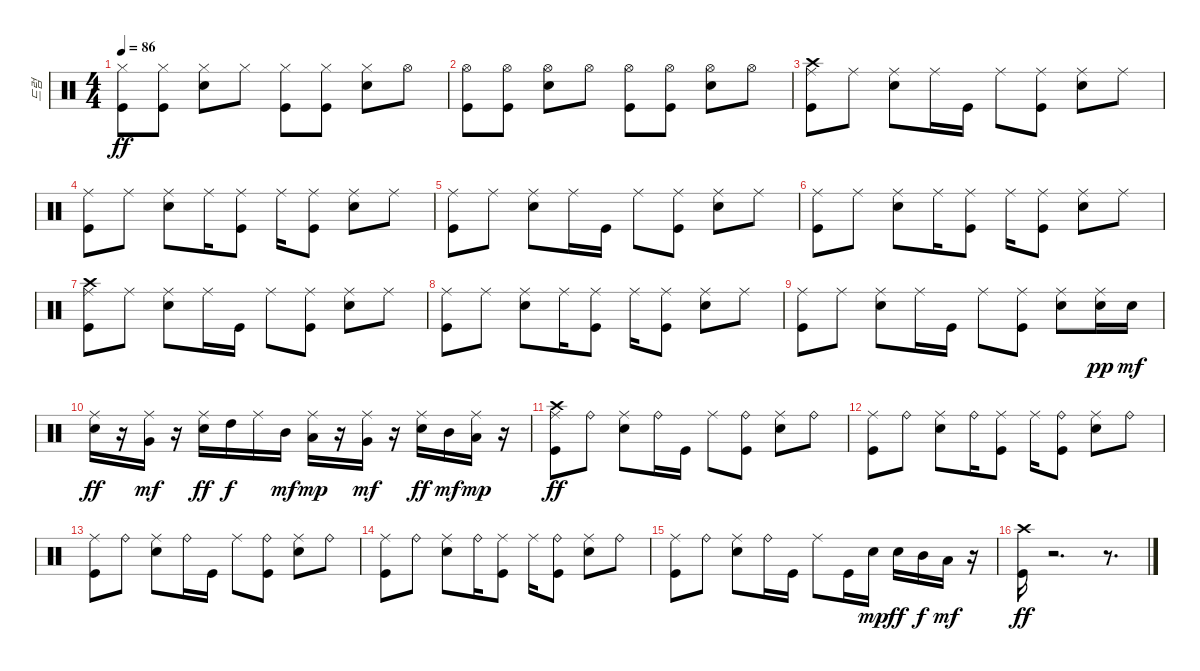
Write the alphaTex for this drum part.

\track ("드럼" "드럼") {instrument percussion}
\staff {score}
\articulation defaults
\ts (4 4)
\tempo 86
\clef neutral
\ks c
("Hi-Hat (closed)" "Kick (hit)").8{dy ff} ("Hi-Hat (closed)" "Kick (hit)").8 ("Hi-Hat (closed)" "Electric Snare (hit)").8 "Hi-Hat (closed)".8 ("Hi-Hat (closed)" "Kick (hit)").8 ("Hi-Hat (closed)" "Kick (hit)").8 ("Hi-Hat (closed)" "Electric Snare (hit)").8 "Hi-Hat (open)".8 |
("Kick (hit)" "Hi-Hat (open)").8 ("Hi-Hat (open)" "Kick (hit)").8 ("Hi-Hat (open)" "Electric Snare (hit)").8 "Hi-Hat (open)".8 ("Hi-Hat (open)" "Kick (hit)").8 ("Kick (hit)" "Hi-Hat (open)").8 ("Electric Snare (hit)" "Hi-Hat (open)").8 "Hi-Hat (open)".8 |
("Crash high (hit)" "Ride (middle)" "Kick (hit)").8 "Ride (middle)".8 ("Ride (middle)" "Electric Snare (hit)").8 "Ride (middle)".16 "Kick (hit)".16 "Ride (middle)".8 ("Ride (middle)" "Kick (hit)").8 ("Ride (middle)" "Electric Snare (hit)").8 "Ride (middle)".8 |
("Ride (middle)" "Kick (hit)").8 "Ride (middle)".8 ("Ride (middle)" "Electric Snare (hit)").8 "Ride (middle)".16 ("Ride (middle)" "Kick (hit)").8 "Ride (middle)".16 ("Ride (middle)" "Kick (hit)").8 ("Electric Snare (hit)" "Ride (middle)").8 "Ride (middle)".8 |
("Ride (middle)" "Kick (hit)").8 "Ride (middle)".8 ("Ride (middle)" "Electric Snare (hit)").8 "Ride (middle)".16 "Kick (hit)".16 "Ride (middle)".8 ("Ride (middle)" "Kick (hit)").8 ("Electric Snare (hit)" "Ride (middle)").8 "Ride (middle)".8 |
("Ride (middle)" "Kick (hit)").8 "Ride (middle)".8 ("Ride (middle)" "Electric Snare (hit)").8 "Ride (middle)".16 ("Ride (middle)" "Kick (hit)").8 "Ride (middle)".16 ("Ride (middle)" "Kick (hit)").8 ("Electric Snare (hit)" "Ride (middle)").8 "Ride (middle)".8 |
("Ride (middle)" "Kick (hit)" "Crash high (hit)").8 "Ride (middle)".8 ("Electric Snare (hit)" "Ride (middle)").8 "Ride (middle)".16 "Kick (hit)".16 "Ride (middle)".8 ("Ride (middle)" "Kick (hit)").8 ("Electric Snare (hit)" "Ride (middle)").8 "Ride (middle)".8 |
("Ride (middle)" "Kick (hit)").8 "Ride (middle)".8 ("Ride (middle)" "Electric Snare (hit)").8 "Ride (middle)".16 ("Ride (middle)" "Kick (hit)").8 "Ride (middle)".16 ("Ride (middle)" "Kick (hit)").8 ("Electric Snare (hit)" "Ride (middle)").8 "Ride (middle)".8 |
("Ride (middle)" "Kick (hit)").8 "Ride (middle)".8 ("Electric Snare (hit)" "Ride (middle)").8 "Ride (middle)".16 "Kick (hit)".16 "Ride (middle)".8 ("Ride (middle)" "Kick (hit)").8 ("Electric Snare (hit)" "Ride (middle)").8 ("Ride (middle)" "Electric Snare (hit)").16{dy pp} "Electric Snare (hit)".16{dy mf} |
("Electric Snare (hit)" "Ride (middle)").16{dy ff} r.16 ("Ride (middle)" "Very Low Tom (hit)").16{dy mf} r.16 ("Ride (middle)" "Electric Snare (hit)").16{dy ff} "High Tom (hit)".16{dy f} "Ride (middle)".16 "Mid Tom (hit)".16{dy mf} ("Ride (middle)" "Low Tom (hit)").16{dy mp} r.16 ("Ride (middle)" "Very Low Tom (hit)").16{dy mf} r.16 ("Ride (middle)" "Electric Snare (hit)").16{dy ff} "Mid Tom (hit)".16{dy mf} ("Ride (middle)" "Low Tom (hit)").16{dy mp} r.16 |
("Crash high (hit)" "Ride (middle)" "Kick (hit)").8{dy ff} "Ride (bell)".8 ("Ride (middle)" "Electric Snare (hit)").8 "Ride (bell)".16 "Kick (hit)".16 "Ride (middle)".8 ("Kick (hit)" "Ride (bell)").8 ("Electric Snare (hit)" "Ride (middle)").8 "Ride (bell)".8 |
("Ride (middle)" "Kick (hit)").8 "Ride (bell)".8 ("Ride (middle)" "Electric Snare (hit)").8 "Ride (bell)".16 ("Kick (hit)" "Ride (middle)").8 "Ride (middle)".16 ("Kick (hit)" "Ride (bell)").8 ("Electric Snare (hit)" "Ride (middle)").8 "Ride (bell)".8 |
("Ride (middle)" "Kick (hit)").8 "Ride (bell)".8 ("Ride (middle)" "Electric Snare (hit)").8 "Ride (bell)".16 "Kick (hit)".16 "Ride (middle)".8 ("Kick (hit)" "Ride (bell)").8 ("Electric Snare (hit)" "Ride (middle)").8 "Ride (bell)".8 |
("Ride (middle)" "Kick (hit)").8 "Ride (bell)".8 ("Ride (middle)" "Electric Snare (hit)").8 "Ride (bell)".16 ("Kick (hit)" "Ride (middle)").8 "Ride (middle)".16 ("Kick (hit)" "Ride (bell)").8 ("Electric Snare (hit)" "Ride (middle)").8 "Ride (bell)".8 |
("Ride (middle)" "Kick (hit)").8 "Ride (bell)".8 ("Ride (middle)" "Electric Snare (hit)").8 "Ride (bell)".16 "Kick (hit)".16 "Ride (middle)".8 "Kick (hit)".16 "Electric Snare (hit)".16{dy mp} "Electric Snare (hit)".16{dy ff} "Mid Tom (hit)".16{dy f} "Low Tom (hit)".16{dy mf} r.16 |
("Crash high (hit)" "Kick (hit)").16{dy ff} r.2{d} r.8{d}
